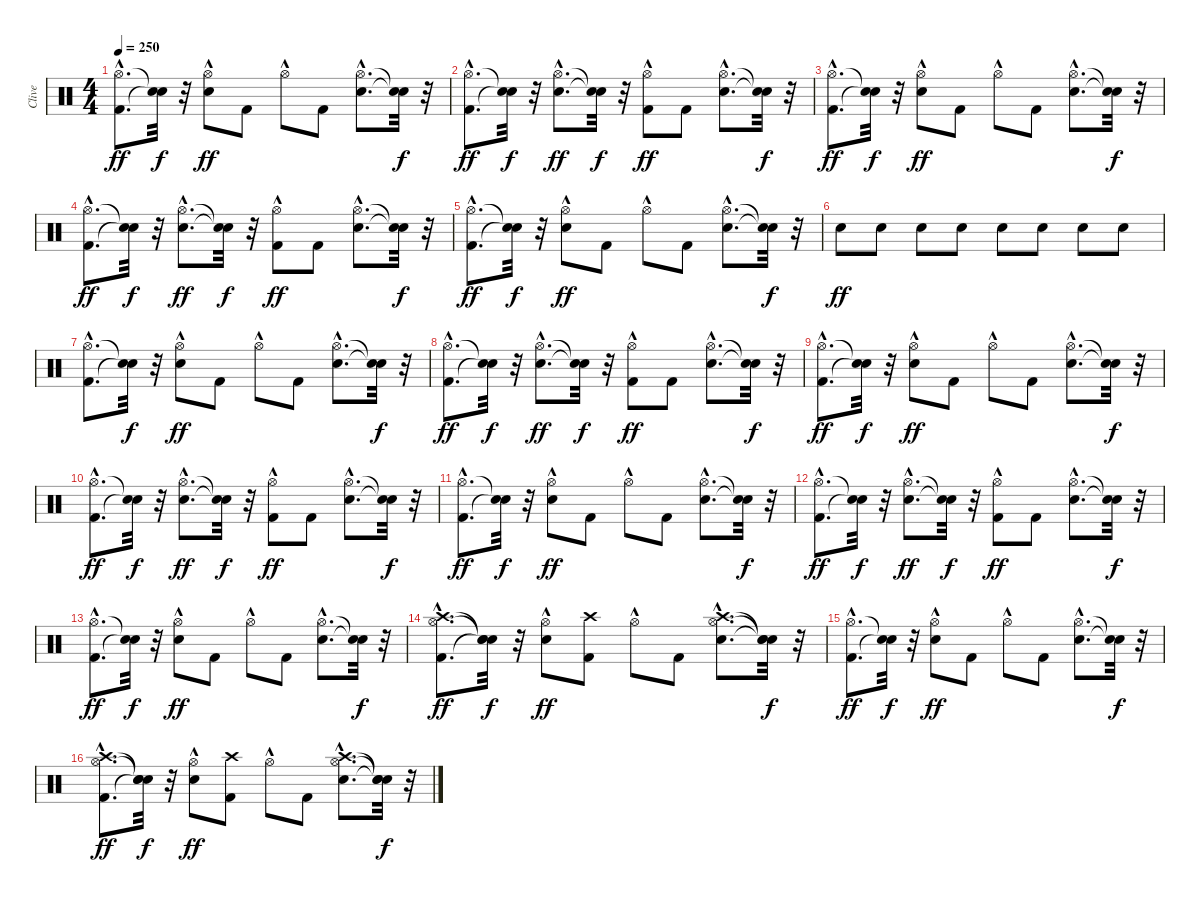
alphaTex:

\track ("Clive" "Clive") {instrument percussion}
\staff {score}
\articulation defaults
\ts (4 4)
\tempo 250
\clef neutral
\ks c
("Kick (hit) 2"{hac} "Hi-Hat (open)"{hac}).8{d dy ff} ("Snare (hit)"{t} "Snare (hit)"{t}).32{dy f} r.32 ("Snare (hit) 2" "Hi-Hat (open)"{hac}).8{dy ff} "Kick (hit) 2".8 "Hi-Hat (open)"{hac}.8 "Kick (hit) 2".8 ("Snare (hit) 2"{hac} "Hi-Hat (open)"{hac}).8{d} ("Snare (hit)"{t} "Snare (hit)"{t}).32{dy f} r.32 |
("Kick (hit) 2"{hac} "Hi-Hat (open)"{hac}).8{d dy ff} ("Snare (hit)"{t} "Snare (hit)"{t}).32{dy f} r.32 ("Snare (hit) 2"{hac} "Hi-Hat (open)"{hac}).8{d dy ff} ("Snare (hit)"{t} "Snare (hit)"{t}).32{dy f} r.32 ("Kick (hit) 2" "Hi-Hat (open)"{hac}).8{dy ff} "Kick (hit) 2".8 ("Snare (hit) 2"{hac} "Hi-Hat (open)"{hac}).8{d} ("Snare (hit)"{t} "Snare (hit)"{t}).32{dy f} r.32 |
("Kick (hit) 2"{hac} "Hi-Hat (open)"{hac}).8{d dy ff} ("Snare (hit)"{t} "Snare (hit)"{t}).32{dy f} r.32 ("Snare (hit) 2" "Hi-Hat (open)"{hac}).8{dy ff} "Kick (hit) 2".8 "Hi-Hat (open)"{hac}.8 "Kick (hit) 2".8 ("Snare (hit) 2"{hac} "Hi-Hat (open)"{hac}).8{d} ("Snare (hit)"{t} "Snare (hit)"{t}).32{dy f} r.32 |
("Kick (hit) 2"{hac} "Hi-Hat (open)"{hac}).8{d dy ff} ("Snare (hit)"{t} "Snare (hit)"{t}).32{dy f} r.32 ("Snare (hit) 2"{hac} "Hi-Hat (open)"{hac}).8{d dy ff} ("Snare (hit)"{t} "Snare (hit)"{t}).32{dy f} r.32 ("Kick (hit) 2" "Hi-Hat (open)"{hac}).8{dy ff} "Kick (hit) 2".8 ("Snare (hit) 2"{hac} "Hi-Hat (open)"{hac}).8{d} ("Snare (hit)"{t} "Snare (hit)"{t}).32{dy f} r.32 |
("Kick (hit) 2"{hac} "Hi-Hat (open)"{hac}).8{d dy ff} ("Snare (hit)"{t} "Snare (hit)"{t}).32{dy f} r.32 ("Snare (hit) 2" "Hi-Hat (open)"{hac}).8{dy ff} "Kick (hit) 2".8 "Hi-Hat (open)"{hac}.8 "Kick (hit) 2".8 ("Snare (hit) 2"{hac} "Hi-Hat (open)"{hac}).8{d} ("Snare (hit)"{t} "Snare (hit)"{t}).32{dy f} r.32 |
"Snare (hit) 2".8{dy ff} "Snare (hit) 2".8 "Snare (hit) 2".8 "Snare (hit) 2".8 "Snare (hit) 2".8 "Snare (hit) 2".8 "Snare (hit) 2".8 "Snare (hit) 2".8 |
("Kick (hit) 2"{hac} "Hi-Hat (open)"{hac}).8{d} ("Snare (hit)"{t} "Snare (hit)"{t}).32{dy f} r.32 ("Snare (hit) 2" "Hi-Hat (open)"{hac}).8{dy ff} "Kick (hit) 2".8 "Hi-Hat (open)"{hac}.8 "Kick (hit) 2".8 ("Snare (hit) 2"{hac} "Hi-Hat (open)"{hac}).8{d} ("Snare (hit)"{t} "Snare (hit)"{t}).32{dy f} r.32 |
("Kick (hit) 2"{hac} "Hi-Hat (open)"{hac}).8{d dy ff} ("Snare (hit)"{t} "Snare (hit)"{t}).32{dy f} r.32 ("Snare (hit) 2"{hac} "Hi-Hat (open)"{hac}).8{d dy ff} ("Snare (hit)"{t} "Snare (hit)"{t}).32{dy f} r.32 ("Kick (hit) 2" "Hi-Hat (open)"{hac}).8{dy ff} "Kick (hit) 2".8 ("Snare (hit) 2"{hac} "Hi-Hat (open)"{hac}).8{d} ("Snare (hit)"{t} "Snare (hit)"{t}).32{dy f} r.32 |
("Kick (hit) 2"{hac} "Hi-Hat (open)"{hac}).8{d dy ff} ("Snare (hit)"{t} "Snare (hit)"{t}).32{dy f} r.32 ("Snare (hit) 2" "Hi-Hat (open)"{hac}).8{dy ff} "Kick (hit) 2".8 "Hi-Hat (open)"{hac}.8 "Kick (hit) 2".8 ("Snare (hit) 2"{hac} "Hi-Hat (open)"{hac}).8{d} ("Snare (hit)"{t} "Snare (hit)"{t}).32{dy f} r.32 |
("Kick (hit) 2"{hac} "Hi-Hat (open)"{hac}).8{d dy ff} ("Snare (hit)"{t} "Snare (hit)"{t}).32{dy f} r.32 ("Snare (hit) 2"{hac} "Hi-Hat (open)"{hac}).8{d dy ff} ("Snare (hit)"{t} "Snare (hit)"{t}).32{dy f} r.32 ("Kick (hit) 2" "Hi-Hat (open)"{hac}).8{dy ff} "Kick (hit) 2".8 ("Snare (hit) 2"{hac} "Hi-Hat (open)"{hac}).8{d} ("Snare (hit)"{t} "Snare (hit)"{t}).32{dy f} r.32 |
("Kick (hit) 2"{hac} "Hi-Hat (open)"{hac}).8{d dy ff} ("Snare (hit)"{t} "Snare (hit)"{t}).32{dy f} r.32 ("Snare (hit) 2" "Hi-Hat (open)"{hac}).8{dy ff} "Kick (hit) 2".8 "Hi-Hat (open)"{hac}.8 "Kick (hit) 2".8 ("Snare (hit) 2"{hac} "Hi-Hat (open)"{hac}).8{d} ("Snare (hit)"{t} "Snare (hit)"{t}).32{dy f} r.32 |
("Kick (hit) 2"{hac} "Hi-Hat (open)"{hac}).8{d dy ff} ("Snare (hit)"{t} "Snare (hit)"{t}).32{dy f} r.32 ("Snare (hit) 2"{hac} "Hi-Hat (open)"{hac}).8{d dy ff} ("Snare (hit)"{t} "Snare (hit)"{t}).32{dy f} r.32 ("Kick (hit) 2" "Hi-Hat (open)"{hac}).8{dy ff} "Kick (hit) 2".8 ("Snare (hit) 2"{hac} "Hi-Hat (open)"{hac}).8{d} ("Snare (hit)"{t} "Snare (hit)"{t}).32{dy f} r.32 |
("Kick (hit) 2"{hac} "Hi-Hat (open)"{hac}).8{d dy ff} ("Snare (hit)"{t} "Snare (hit)"{t}).32{dy f} r.32 ("Snare (hit) 2" "Hi-Hat (open)"{hac}).8{dy ff} "Kick (hit) 2".8 "Hi-Hat (open)"{hac}.8 "Kick (hit) 2".8 ("Snare (hit) 2"{hac} "Hi-Hat (open)"{hac}).8{d} ("Snare (hit)"{t} "Snare (hit)"{t}).32{dy f} r.32 |
("Kick (hit) 2"{hac} "Hi-Hat (open)"{hac} "Crash high (hit)"{hac}).8{d dy ff} ("Snare (hit)"{t} "Snare (hit)"{t} "Snare (hit)"{t}).32{dy f} r.32 ("Snare (hit) 2" "Hi-Hat (open)"{hac}).8{dy ff} ("Kick (hit) 2" "Crash high (hit)").8 "Hi-Hat (open)"{hac}.8 "Kick (hit) 2".8 ("Snare (hit) 2"{hac} "Hi-Hat (open)"{hac} "Crash high (hit)"{hac}).8{d} ("Snare (hit)"{t} "Snare (hit)"{t} "Snare (hit)"{t}).32{dy f} r.32 |
("Kick (hit) 2"{hac} "Hi-Hat (open)"{hac}).8{d dy ff} ("Snare (hit)"{t} "Snare (hit)"{t}).32{dy f} r.32 ("Snare (hit) 2" "Hi-Hat (open)"{hac}).8{dy ff} "Kick (hit) 2".8 "Hi-Hat (open)"{hac}.8 "Kick (hit) 2".8 ("Snare (hit) 2"{hac} "Hi-Hat (open)"{hac}).8{d} ("Snare (hit)"{t} "Snare (hit)"{t}).32{dy f} r.32 |
("Kick (hit) 2"{hac} "Hi-Hat (open)"{hac} "Crash high (hit)"{hac}).8{d dy ff} ("Snare (hit)"{t} "Snare (hit)"{t} "Snare (hit)"{t}).32{dy f} r.32 ("Snare (hit) 2" "Hi-Hat (open)"{hac}).8{dy ff} ("Kick (hit) 2" "Crash high (hit)").8 "Hi-Hat (open)"{hac}.8 "Kick (hit) 2".8 ("Snare (hit) 2"{hac} "Hi-Hat (open)"{hac} "Crash high (hit)"{hac}).8{d} ("Snare (hit)"{t} "Snare (hit)"{t} "Snare (hit)"{t}).32{dy f} r.32
